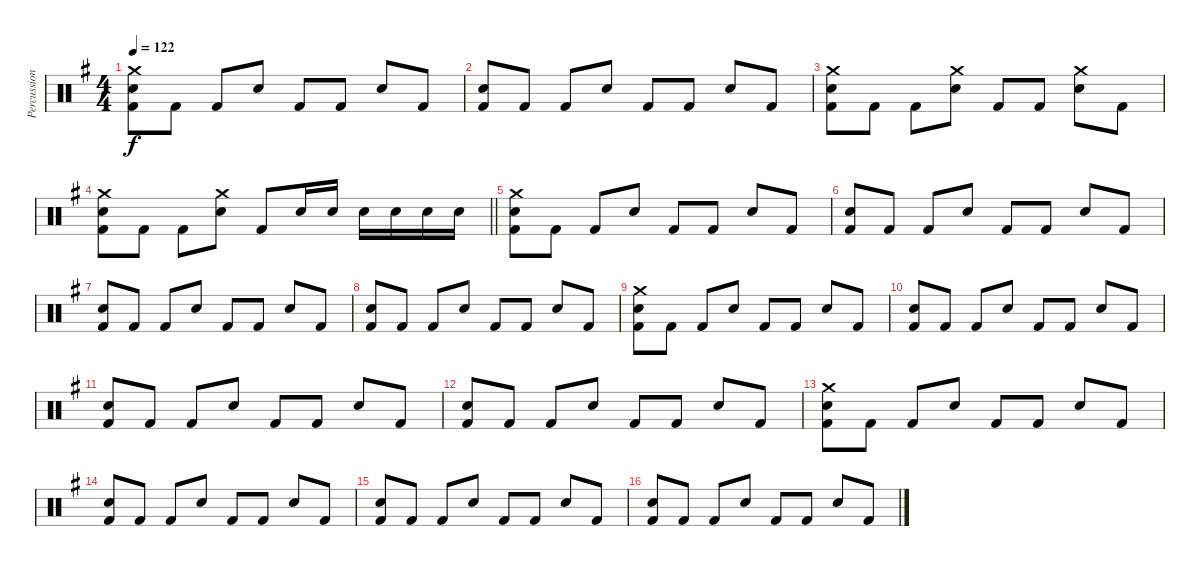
\track ("Percussion" "Percussion") {instrument percussion}
\staff {score}
\articulation defaults
\ts (4 4)
\tempo 122
\clef neutral
\ks g
("Crash medium (hit)" "Snare (hit) 2" "Kick (hit) 2").8{dy f} "Kick (hit) 2".8 "Kick (hit) 2".8 "Snare (hit) 2".8 "Kick (hit) 2".8 "Kick (hit) 2".8 "Snare (hit) 2".8 "Kick (hit) 2".8 |
("Snare (hit) 2" "Kick (hit) 2").8 "Kick (hit) 2".8 "Kick (hit) 2".8 "Snare (hit) 2".8 "Kick (hit) 2".8 "Kick (hit) 2".8 "Snare (hit) 2".8 "Kick (hit) 2".8 |
("Crash medium (hit)" "Snare (hit) 2" "Kick (hit) 2").8 "Kick (hit) 2".8 "Kick (hit) 2".8 ("Crash medium (hit)" "Snare (hit) 2").8 "Kick (hit) 2".8 "Kick (hit) 2".8 ("Crash medium (hit)" "Snare (hit) 2").8 "Kick (hit) 2".8 |
\barLineRight lightlight
("Crash medium (hit)" "Snare (hit) 2" "Kick (hit) 2").8 "Kick (hit) 2".8 "Kick (hit) 2".8 ("Crash medium (hit)" "Snare (hit) 2").8 "Kick (hit) 2".8 "Snare (hit) 2".16 "Snare (hit) 2".16 "Snare (hit) 2".16 "Snare (hit) 2".16 "Snare (hit) 2".16 "Snare (hit) 2".16 |
("Crash medium (hit)" "Snare (hit) 2" "Kick (hit) 2").8 "Kick (hit) 2".8 "Kick (hit) 2".8 "Snare (hit) 2".8 "Kick (hit) 2".8 "Kick (hit) 2".8 "Snare (hit) 2".8 "Kick (hit) 2".8 |
("Snare (hit) 2" "Kick (hit) 2").8 "Kick (hit) 2".8 "Kick (hit) 2".8 "Snare (hit) 2".8 "Kick (hit) 2".8 "Kick (hit) 2".8 "Snare (hit) 2".8 "Kick (hit) 2".8 |
("Snare (hit) 2" "Kick (hit) 2").8 "Kick (hit) 2".8 "Kick (hit) 2".8 "Snare (hit) 2".8 "Kick (hit) 2".8 "Kick (hit) 2".8 "Snare (hit) 2".8 "Kick (hit) 2".8 |
("Snare (hit) 2" "Kick (hit) 2").8 "Kick (hit) 2".8 "Kick (hit) 2".8 "Snare (hit) 2".8 "Kick (hit) 2".8 "Kick (hit) 2".8 "Snare (hit) 2".8 "Kick (hit) 2".8 |
("Crash medium (hit)" "Snare (hit) 2" "Kick (hit) 2").8 "Kick (hit) 2".8 "Kick (hit) 2".8 "Snare (hit) 2".8 "Kick (hit) 2".8 "Kick (hit) 2".8 "Snare (hit) 2".8 "Kick (hit) 2".8 |
("Snare (hit) 2" "Kick (hit) 2").8 "Kick (hit) 2".8 "Kick (hit) 2".8 "Snare (hit) 2".8 "Kick (hit) 2".8 "Kick (hit) 2".8 "Snare (hit) 2".8 "Kick (hit) 2".8 |
("Snare (hit) 2" "Kick (hit) 2").8 "Kick (hit) 2".8 "Kick (hit) 2".8 "Snare (hit) 2".8 "Kick (hit) 2".8 "Kick (hit) 2".8 "Snare (hit) 2".8 "Kick (hit) 2".8 |
("Snare (hit) 2" "Kick (hit) 2").8 "Kick (hit) 2".8 "Kick (hit) 2".8 "Snare (hit) 2".8 "Kick (hit) 2".8 "Kick (hit) 2".8 "Snare (hit) 2".8 "Kick (hit) 2".8 |
("Crash medium (hit)" "Snare (hit) 2" "Kick (hit) 2").8 "Kick (hit) 2".8 "Kick (hit) 2".8 "Snare (hit) 2".8 "Kick (hit) 2".8 "Kick (hit) 2".8 "Snare (hit) 2".8 "Kick (hit) 2".8 |
("Snare (hit) 2" "Kick (hit) 2").8 "Kick (hit) 2".8 "Kick (hit) 2".8 "Snare (hit) 2".8 "Kick (hit) 2".8 "Kick (hit) 2".8 "Snare (hit) 2".8 "Kick (hit) 2".8 |
("Snare (hit) 2" "Kick (hit) 2").8 "Kick (hit) 2".8 "Kick (hit) 2".8 "Snare (hit) 2".8 "Kick (hit) 2".8 "Kick (hit) 2".8 "Snare (hit) 2".8 "Kick (hit) 2".8 |
("Snare (hit) 2" "Kick (hit) 2").8 "Kick (hit) 2".8 "Kick (hit) 2".8 "Snare (hit) 2".8 "Kick (hit) 2".8 "Kick (hit) 2".8 "Snare (hit) 2".8 "Kick (hit) 2".8
